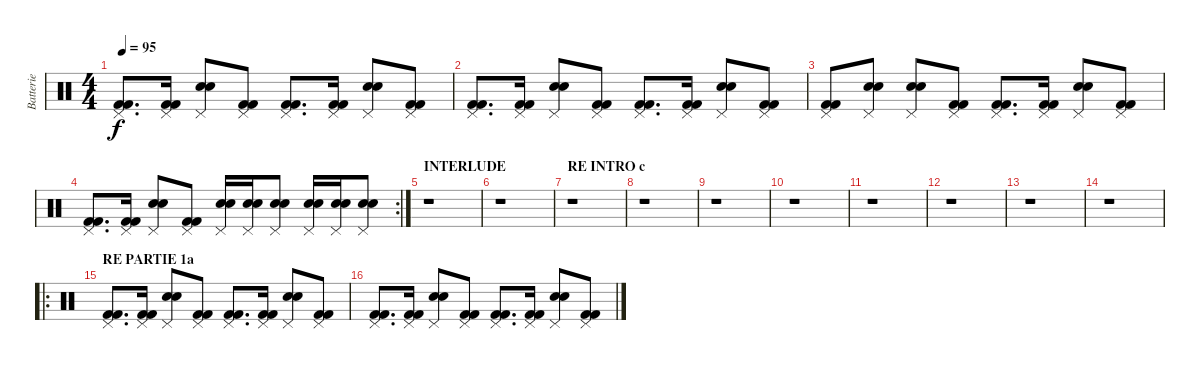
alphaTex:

\track ("Batterie" "Batterie") {instrument percussion}
\staff {score}
\articulation defaults
\ts (4 4)
\tempo 95
\clef neutral
\ks c
("Pedal Hi-Hat (hit)" "Kick (hit) 2" "Kick (hit) 2").8{d dy f} ("Pedal Hi-Hat (hit)" "Kick (hit) 2" "Kick (hit) 2").16 ("Pedal Hi-Hat (hit)" "Electric Snare (hit)" "Electric Snare (hit)").8 ("Pedal Hi-Hat (hit)" "Kick (hit) 2" "Kick (hit) 2").8 ("Pedal Hi-Hat (hit)" "Kick (hit) 2" "Kick (hit) 2").8{d} ("Pedal Hi-Hat (hit)" "Kick (hit) 2" "Kick (hit) 2").16 ("Pedal Hi-Hat (hit)" "Electric Snare (hit)" "Electric Snare (hit)").8 ("Pedal Hi-Hat (hit)" "Kick (hit) 2" "Kick (hit) 2").8 |
("Pedal Hi-Hat (hit)" "Kick (hit) 2" "Kick (hit) 2").8{d} ("Pedal Hi-Hat (hit)" "Kick (hit) 2" "Kick (hit) 2").16 ("Pedal Hi-Hat (hit)" "Electric Snare (hit)" "Electric Snare (hit)").8 ("Pedal Hi-Hat (hit)" "Kick (hit) 2" "Kick (hit) 2").8 ("Pedal Hi-Hat (hit)" "Kick (hit) 2" "Kick (hit) 2").8{d} ("Pedal Hi-Hat (hit)" "Kick (hit) 2" "Kick (hit) 2").16 ("Pedal Hi-Hat (hit)" "Electric Snare (hit)" "Electric Snare (hit)").8 ("Pedal Hi-Hat (hit)" "Kick (hit) 2" "Kick (hit) 2").8 |
("Pedal Hi-Hat (hit)" "Kick (hit) 2" "Kick (hit) 2").8 ("Pedal Hi-Hat (hit)" "Electric Snare (hit)" "Electric Snare (hit)").8 ("Pedal Hi-Hat (hit)" "Electric Snare (hit)" "Electric Snare (hit)").8 ("Pedal Hi-Hat (hit)" "Kick (hit) 2" "Kick (hit) 2").8 ("Pedal Hi-Hat (hit)" "Kick (hit) 2" "Kick (hit) 2").8{d} ("Pedal Hi-Hat (hit)" "Kick (hit) 2" "Kick (hit) 2").16 ("Pedal Hi-Hat (hit)" "Electric Snare (hit)" "Electric Snare (hit)").8 ("Pedal Hi-Hat (hit)" "Kick (hit) 2" "Kick (hit) 2").8 |
\rc 2
("Pedal Hi-Hat (hit)" "Kick (hit) 2" "Kick (hit) 2").8{d} ("Pedal Hi-Hat (hit)" "Kick (hit) 2" "Kick (hit) 2").16 ("Pedal Hi-Hat (hit)" "Electric Snare (hit)" "Electric Snare (hit)").8 ("Pedal Hi-Hat (hit)" "Kick (hit) 2" "Kick (hit) 2").8 ("Pedal Hi-Hat (hit)" "Electric Snare (hit)" "Electric Snare (hit)").16 ("Pedal Hi-Hat (hit)" "Electric Snare (hit)" "Electric Snare (hit)").16 ("Pedal Hi-Hat (hit)" "Electric Snare (hit)" "Electric Snare (hit)").8 ("Pedal Hi-Hat (hit)" "Electric Snare (hit)" "Electric Snare (hit)").16 ("Pedal Hi-Hat (hit)" "Electric Snare (hit)" "Electric Snare (hit)").16 ("Pedal Hi-Hat (hit)" "Electric Snare (hit)" "Electric Snare (hit)").8 |
\section ("" "INTERLUDE")
r.1 |
r.1 |
\section ("" "RE INTRO c")
r.1 |
r.1 |
r.1 |
r.1 |
r.1 |
r.1 |
r.1 |
r.1 |
\ro
\section ("" "RE PARTIE 1a")
("Pedal Hi-Hat (hit)" "Kick (hit) 2" "Kick (hit) 2").8{d} ("Pedal Hi-Hat (hit)" "Kick (hit) 2" "Kick (hit) 2").16 ("Pedal Hi-Hat (hit)" "Electric Snare (hit)" "Electric Snare (hit)").8 ("Pedal Hi-Hat (hit)" "Kick (hit) 2" "Kick (hit) 2").8 ("Pedal Hi-Hat (hit)" "Kick (hit) 2" "Kick (hit) 2").8{d} ("Pedal Hi-Hat (hit)" "Kick (hit) 2" "Kick (hit) 2").16 ("Pedal Hi-Hat (hit)" "Electric Snare (hit)" "Electric Snare (hit)").8 ("Pedal Hi-Hat (hit)" "Kick (hit) 2" "Kick (hit) 2").8 |
("Pedal Hi-Hat (hit)" "Kick (hit) 2" "Kick (hit) 2").8{d} ("Pedal Hi-Hat (hit)" "Kick (hit) 2" "Kick (hit) 2").16 ("Pedal Hi-Hat (hit)" "Electric Snare (hit)" "Electric Snare (hit)").8 ("Pedal Hi-Hat (hit)" "Kick (hit) 2" "Kick (hit) 2").8 ("Pedal Hi-Hat (hit)" "Kick (hit) 2" "Kick (hit) 2").8{d} ("Pedal Hi-Hat (hit)" "Kick (hit) 2" "Kick (hit) 2").16 ("Pedal Hi-Hat (hit)" "Electric Snare (hit)" "Electric Snare (hit)").8 ("Pedal Hi-Hat (hit)" "Kick (hit) 2" "Kick (hit) 2").8
